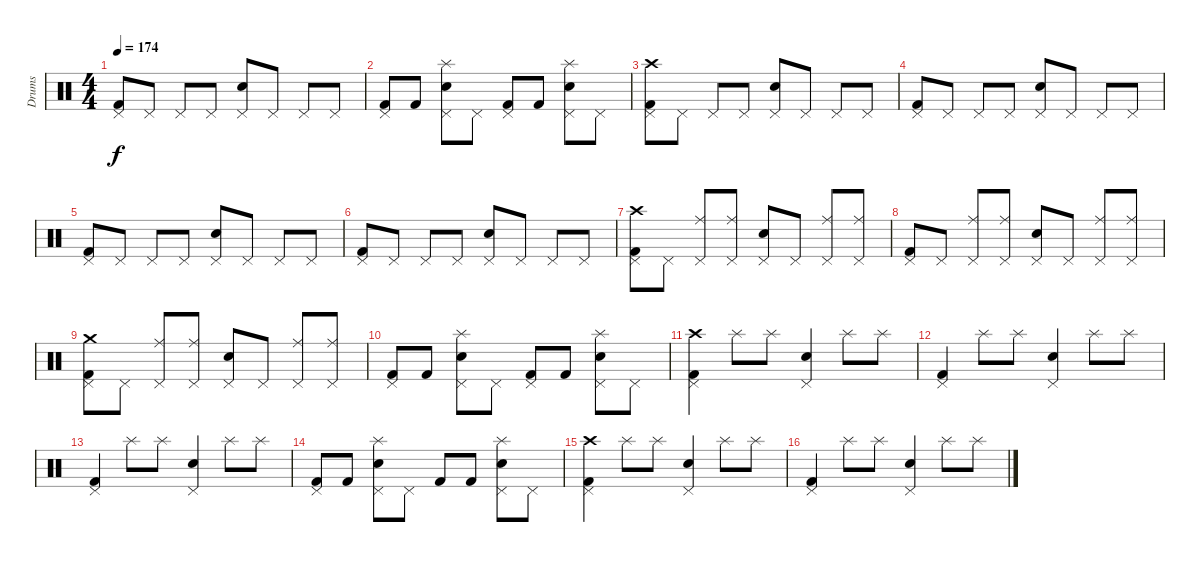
\track ("Drums" "Drums") {instrument percussion}
\staff {score}
\articulation defaults
\ts (4 4)
\tempo 174
\clef neutral
\ks c
("Kick (hit) 2" "Pedal Hi-Hat (hit)").8{dy f} "Pedal Hi-Hat (hit)".8 "Pedal Hi-Hat (hit)".8 "Pedal Hi-Hat (hit)".8 ("Snare (hit) 2" "Pedal Hi-Hat (hit)").8 "Pedal Hi-Hat (hit)".8 "Pedal Hi-Hat (hit)".8 "Pedal Hi-Hat (hit)".8 |
("Kick (hit) 2" "Pedal Hi-Hat (hit)").8 "Kick (hit) 2".8 ("Snare (hit) 2" "Pedal Hi-Hat (hit)" "Splash (hit)").8 "Pedal Hi-Hat (hit)".8 ("Kick (hit) 2" "Pedal Hi-Hat (hit)").8 "Kick (hit) 2".8 ("Snare (hit) 2" "Pedal Hi-Hat (hit)" "Splash (hit)").8 "Pedal Hi-Hat (hit)".8 |
("Kick (hit) 2" "Pedal Hi-Hat (hit)" "Crash high (hit)").8 "Pedal Hi-Hat (hit)".8 "Pedal Hi-Hat (hit)".8 "Pedal Hi-Hat (hit)".8 ("Snare (hit) 2" "Pedal Hi-Hat (hit)").8 "Pedal Hi-Hat (hit)".8 "Pedal Hi-Hat (hit)".8 "Pedal Hi-Hat (hit)".8 |
("Kick (hit) 2" "Pedal Hi-Hat (hit)").8 "Pedal Hi-Hat (hit)".8 "Pedal Hi-Hat (hit)".8 "Pedal Hi-Hat (hit)".8 ("Snare (hit) 2" "Pedal Hi-Hat (hit)").8 "Pedal Hi-Hat (hit)".8 "Pedal Hi-Hat (hit)".8 "Pedal Hi-Hat (hit)".8 |
("Kick (hit) 2" "Pedal Hi-Hat (hit)").8 "Pedal Hi-Hat (hit)".8 "Pedal Hi-Hat (hit)".8 "Pedal Hi-Hat (hit)".8 ("Snare (hit) 2" "Pedal Hi-Hat (hit)").8 "Pedal Hi-Hat (hit)".8 "Pedal Hi-Hat (hit)".8 "Pedal Hi-Hat (hit)".8 |
("Kick (hit) 2" "Pedal Hi-Hat (hit)").8 "Pedal Hi-Hat (hit)".8 "Pedal Hi-Hat (hit)".8 "Pedal Hi-Hat (hit)".8 ("Snare (hit) 2" "Pedal Hi-Hat (hit)").8 "Pedal Hi-Hat (hit)".8 "Pedal Hi-Hat (hit)".8 "Pedal Hi-Hat (hit)".8 |
("Kick (hit) 2" "Pedal Hi-Hat (hit)" "Crash high (hit)").8 "Pedal Hi-Hat (hit)".8 ("Pedal Hi-Hat (hit)" "Ride (middle)").8 ("Pedal Hi-Hat (hit)" "Ride (middle)").8 ("Snare (hit) 2" "Pedal Hi-Hat (hit)").8 "Pedal Hi-Hat (hit)".8 ("Pedal Hi-Hat (hit)" "Ride (middle)").8 ("Pedal Hi-Hat (hit)" "Ride (middle)").8 |
("Kick (hit) 2" "Pedal Hi-Hat (hit)").8 "Pedal Hi-Hat (hit)".8 ("Pedal Hi-Hat (hit)" "Ride (middle)").8 ("Pedal Hi-Hat (hit)" "Ride (middle)").8 ("Snare (hit) 2" "Pedal Hi-Hat (hit)").8 "Pedal Hi-Hat (hit)".8 ("Pedal Hi-Hat (hit)" "Ride (middle)").8 ("Pedal Hi-Hat (hit)" "Ride (middle)").8 |
("Kick (hit) 2" "Pedal Hi-Hat (hit)" "Crash medium (hit)").8 "Pedal Hi-Hat (hit)".8 ("Pedal Hi-Hat (hit)" "Ride (middle)").8 ("Pedal Hi-Hat (hit)" "Ride (middle)").8 ("Snare (hit) 2" "Pedal Hi-Hat (hit)").8 "Pedal Hi-Hat (hit)".8 ("Pedal Hi-Hat (hit)" "Ride (middle)").8 ("Pedal Hi-Hat (hit)" "Ride (middle)").8 |
("Kick (hit) 2" "Pedal Hi-Hat (hit)").8 "Kick (hit) 2".8 ("Snare (hit) 2" "Pedal Hi-Hat (hit)" "Splash (hit)").8 "Pedal Hi-Hat (hit)".8 ("Kick (hit) 2" "Pedal Hi-Hat (hit)").8 "Kick (hit) 2".8 ("Snare (hit) 2" "Pedal Hi-Hat (hit)" "Splash (hit)").8 "Pedal Hi-Hat (hit)".8 |
("Kick (hit) 2" "Pedal Hi-Hat (hit)" "Crash high (hit)").4 "Splash (hit)".8 "Splash (hit)".8 ("Snare (hit) 2" "Pedal Hi-Hat (hit)").4 "Splash (hit)".8 "Splash (hit)".8 |
("Kick (hit) 2" "Pedal Hi-Hat (hit)").4 "Splash (hit)".8 "Splash (hit)".8 ("Snare (hit) 2" "Pedal Hi-Hat (hit)").4 "Splash (hit)".8 "Splash (hit)".8 |
("Kick (hit) 2" "Pedal Hi-Hat (hit)").4 "Splash (hit)".8 "Splash (hit)".8 ("Snare (hit) 2" "Pedal Hi-Hat (hit)").4 "Splash (hit)".8 "Splash (hit)".8 |
("Kick (hit) 2" "Pedal Hi-Hat (hit)").8 "Kick (hit) 2".8 ("Snare (hit) 2" "Pedal Hi-Hat (hit)" "Splash (hit)").8 "Pedal Hi-Hat (hit)".8 "Kick (hit) 2".8 "Kick (hit) 2".8 ("Snare (hit) 2" "Pedal Hi-Hat (hit)" "Splash (hit)").8 "Pedal Hi-Hat (hit)".8 |
("Kick (hit) 2" "Pedal Hi-Hat (hit)" "Crash high (hit)").4 "Splash (hit)".8 "Splash (hit)".8 ("Snare (hit) 2" "Pedal Hi-Hat (hit)").4 "Splash (hit)".8 "Splash (hit)".8 |
("Kick (hit) 2" "Pedal Hi-Hat (hit)").4 "Splash (hit)".8 "Splash (hit)".8 ("Snare (hit) 2" "Pedal Hi-Hat (hit)").4 "Splash (hit)".8 "Splash (hit)".8
